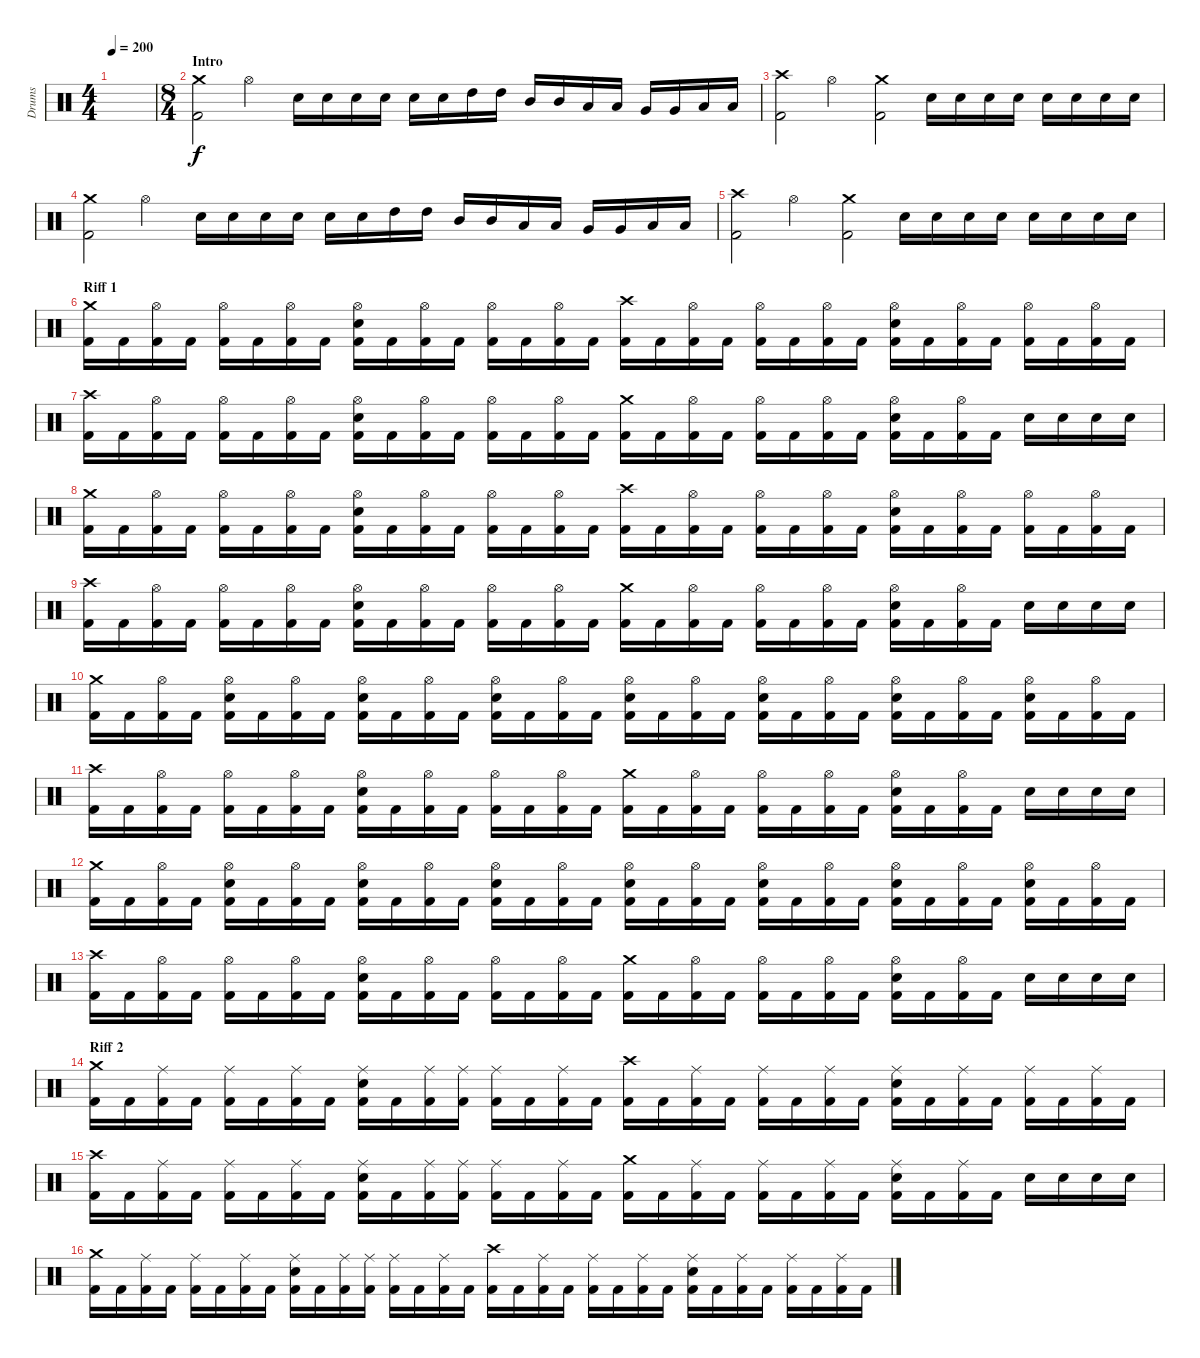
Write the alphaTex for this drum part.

\track ("Drums" "Drums") {instrument percussion}
\staff {score}
\articulation defaults
\ts (4 4)
\tempo 200
\clef neutral
\ks c
|
\ts (8 4)
\section ("" "Intro")
("Crash medium (hit)" "Kick (hit) 2").2 "Hi-Hat (open)".2 "Electric Snare (hit)".16 "Electric Snare (hit)".16 "Electric Snare (hit)".16 "Electric Snare (hit)".16 "Electric Snare (hit)".16 "Electric Snare (hit)".16 "High Tom (hit)".16 "High Tom (hit)".16 "Mid Tom (hit)".16 "Mid Tom (hit)".16 "Low Tom (hit)".16 "Low Tom (hit)".16 "Very Low Tom (hit)".16 "Very Low Tom (hit)".16 "Low Floor Tom (hit)".16 "Low Floor Tom (hit)".16 |
("Crash high (hit)" "Kick (hit) 2").2 "Hi-Hat (open)".2 ("Crash medium (hit)" "Kick (hit) 2").2 "Electric Snare (hit)".16 "Electric Snare (hit)".16 "Electric Snare (hit)".16 "Electric Snare (hit)".16 "Electric Snare (hit)".16 "Electric Snare (hit)".16 "Electric Snare (hit)".16 "Electric Snare (hit)".16 |
("Crash medium (hit)" "Kick (hit) 2").2 "Hi-Hat (open)".2 "Electric Snare (hit)".16 "Electric Snare (hit)".16 "Electric Snare (hit)".16 "Electric Snare (hit)".16 "Electric Snare (hit)".16 "Electric Snare (hit)".16 "High Tom (hit)".16 "High Tom (hit)".16 "Mid Tom (hit)".16 "Mid Tom (hit)".16 "Low Tom (hit)".16 "Low Tom (hit)".16 "Very Low Tom (hit)".16 "Very Low Tom (hit)".16 "Low Floor Tom (hit)".16 "Low Floor Tom (hit)".16 |
("Crash high (hit)" "Kick (hit) 2").2 "Hi-Hat (open)".2 ("Crash medium (hit)" "Kick (hit) 2").2 "Electric Snare (hit)".16 "Electric Snare (hit)".16 "Electric Snare (hit)".16 "Electric Snare (hit)".16 "Electric Snare (hit)".16 "Electric Snare (hit)".16 "Electric Snare (hit)".16 "Electric Snare (hit)".16 |
\section ("" "Riff 1")
("Crash medium (hit)" "Kick (hit) 2").16 "Kick (hit) 2".16 ("Hi-Hat (open)" "Kick (hit) 2").16 "Kick (hit) 2".16 ("Hi-Hat (open)" "Kick (hit) 2").16 "Kick (hit) 2".16 ("Hi-Hat (open)" "Kick (hit) 2").16 "Kick (hit) 2".16 ("Hi-Hat (open)" "Electric Snare (hit)" "Kick (hit) 2").16 "Kick (hit) 2".16 ("Hi-Hat (open)" "Kick (hit) 2").16 "Kick (hit) 2".16 ("Hi-Hat (open)" "Kick (hit) 2").16 "Kick (hit) 2".16 ("Hi-Hat (open)" "Kick (hit) 2").16 "Kick (hit) 2".16 ("Crash high (hit)" "Kick (hit) 2").16 "Kick (hit) 2".16 ("Hi-Hat (open)" "Kick (hit) 2").16 "Kick (hit) 2".16 ("Hi-Hat (open)" "Kick (hit) 2").16 "Kick (hit) 2".16 ("Hi-Hat (open)" "Kick (hit) 2").16 "Kick (hit) 2".16 ("Hi-Hat (open)" "Electric Snare (hit)" "Kick (hit) 2").16 "Kick (hit) 2".16 ("Hi-Hat (open)" "Kick (hit) 2").16 "Kick (hit) 2".16 ("Hi-Hat (open)" "Kick (hit) 2").16 "Kick (hit) 2".16 ("Hi-Hat (open)" "Kick (hit) 2").16 "Kick (hit) 2".16 |
("Crash high (hit)" "Kick (hit) 2").16 "Kick (hit) 2".16 ("Hi-Hat (open)" "Kick (hit) 2").16 "Kick (hit) 2".16 ("Hi-Hat (open)" "Kick (hit) 2").16 "Kick (hit) 2".16 ("Hi-Hat (open)" "Kick (hit) 2").16 "Kick (hit) 2".16 ("Hi-Hat (open)" "Electric Snare (hit)" "Kick (hit) 2").16 "Kick (hit) 2".16 ("Hi-Hat (open)" "Kick (hit) 2").16 "Kick (hit) 2".16 ("Hi-Hat (open)" "Kick (hit) 2").16 "Kick (hit) 2".16 ("Hi-Hat (open)" "Kick (hit) 2").16 "Kick (hit) 2".16 ("Crash medium (hit)" "Kick (hit) 2").16 "Kick (hit) 2".16 ("Hi-Hat (open)" "Kick (hit) 2").16 "Kick (hit) 2".16 ("Hi-Hat (open)" "Kick (hit) 2").16 "Kick (hit) 2".16 ("Hi-Hat (open)" "Kick (hit) 2").16 "Kick (hit) 2".16 ("Hi-Hat (open)" "Electric Snare (hit)" "Kick (hit) 2").16 "Kick (hit) 2".16 ("Hi-Hat (open)" "Kick (hit) 2").16 "Kick (hit) 2".16 "Electric Snare (hit)".16 "Electric Snare (hit)".16 "Electric Snare (hit)".16 "Electric Snare (hit)".16 |
("Crash medium (hit)" "Kick (hit) 2").16 "Kick (hit) 2".16 ("Hi-Hat (open)" "Kick (hit) 2").16 "Kick (hit) 2".16 ("Hi-Hat (open)" "Kick (hit) 2").16 "Kick (hit) 2".16 ("Hi-Hat (open)" "Kick (hit) 2").16 "Kick (hit) 2".16 ("Hi-Hat (open)" "Electric Snare (hit)" "Kick (hit) 2").16 "Kick (hit) 2".16 ("Hi-Hat (open)" "Kick (hit) 2").16 "Kick (hit) 2".16 ("Hi-Hat (open)" "Kick (hit) 2").16 "Kick (hit) 2".16 ("Hi-Hat (open)" "Kick (hit) 2").16 "Kick (hit) 2".16 ("Crash high (hit)" "Kick (hit) 2").16 "Kick (hit) 2".16 ("Hi-Hat (open)" "Kick (hit) 2").16 "Kick (hit) 2".16 ("Hi-Hat (open)" "Kick (hit) 2").16 "Kick (hit) 2".16 ("Hi-Hat (open)" "Kick (hit) 2").16 "Kick (hit) 2".16 ("Hi-Hat (open)" "Electric Snare (hit)" "Kick (hit) 2").16 "Kick (hit) 2".16 ("Hi-Hat (open)" "Kick (hit) 2").16 "Kick (hit) 2".16 ("Hi-Hat (open)" "Kick (hit) 2").16 "Kick (hit) 2".16 ("Hi-Hat (open)" "Kick (hit) 2").16 "Kick (hit) 2".16 |
("Crash high (hit)" "Kick (hit) 2").16 "Kick (hit) 2".16 ("Hi-Hat (open)" "Kick (hit) 2").16 "Kick (hit) 2".16 ("Hi-Hat (open)" "Kick (hit) 2").16 "Kick (hit) 2".16 ("Hi-Hat (open)" "Kick (hit) 2").16 "Kick (hit) 2".16 ("Hi-Hat (open)" "Electric Snare (hit)" "Kick (hit) 2").16 "Kick (hit) 2".16 ("Hi-Hat (open)" "Kick (hit) 2").16 "Kick (hit) 2".16 ("Hi-Hat (open)" "Kick (hit) 2").16 "Kick (hit) 2".16 ("Hi-Hat (open)" "Kick (hit) 2").16 "Kick (hit) 2".16 ("Crash medium (hit)" "Kick (hit) 2").16 "Kick (hit) 2".16 ("Hi-Hat (open)" "Kick (hit) 2").16 "Kick (hit) 2".16 ("Hi-Hat (open)" "Kick (hit) 2").16 "Kick (hit) 2".16 ("Hi-Hat (open)" "Kick (hit) 2").16 "Kick (hit) 2".16 ("Hi-Hat (open)" "Electric Snare (hit)" "Kick (hit) 2").16 "Kick (hit) 2".16 ("Hi-Hat (open)" "Kick (hit) 2").16 "Kick (hit) 2".16 "Electric Snare (hit)".16 "Electric Snare (hit)".16 "Electric Snare (hit)".16 "Electric Snare (hit)".16 |
("Crash medium (hit)" "Kick (hit) 2").16 "Kick (hit) 2".16 ("Hi-Hat (open)" "Kick (hit) 2").16 "Kick (hit) 2".16 ("Hi-Hat (open)" "Electric Snare (hit)" "Kick (hit) 2").16 "Kick (hit) 2".16 ("Hi-Hat (open)" "Kick (hit) 2").16 "Kick (hit) 2".16 ("Hi-Hat (open)" "Electric Snare (hit)" "Kick (hit) 2").16 "Kick (hit) 2".16 ("Hi-Hat (open)" "Kick (hit) 2").16 "Kick (hit) 2".16 ("Hi-Hat (open)" "Electric Snare (hit)" "Kick (hit) 2").16 "Kick (hit) 2".16 ("Hi-Hat (open)" "Kick (hit) 2").16 "Kick (hit) 2".16 ("Hi-Hat (open)" "Electric Snare (hit)" "Kick (hit) 2").16 "Kick (hit) 2".16 ("Hi-Hat (open)" "Kick (hit) 2").16 "Kick (hit) 2".16 ("Hi-Hat (open)" "Electric Snare (hit)" "Kick (hit) 2").16 "Kick (hit) 2".16 ("Hi-Hat (open)" "Kick (hit) 2").16 "Kick (hit) 2".16 ("Hi-Hat (open)" "Electric Snare (hit)" "Kick (hit) 2").16 "Kick (hit) 2".16 ("Hi-Hat (open)" "Kick (hit) 2").16 "Kick (hit) 2".16 ("Hi-Hat (open)" "Electric Snare (hit)" "Kick (hit) 2").16 "Kick (hit) 2".16 ("Hi-Hat (open)" "Kick (hit) 2").16 "Kick (hit) 2".16 |
("Crash high (hit)" "Kick (hit) 2").16 "Kick (hit) 2".16 ("Hi-Hat (open)" "Kick (hit) 2").16 "Kick (hit) 2".16 ("Hi-Hat (open)" "Kick (hit) 2").16 "Kick (hit) 2".16 ("Hi-Hat (open)" "Kick (hit) 2").16 "Kick (hit) 2".16 ("Hi-Hat (open)" "Electric Snare (hit)" "Kick (hit) 2").16 "Kick (hit) 2".16 ("Hi-Hat (open)" "Kick (hit) 2").16 "Kick (hit) 2".16 ("Hi-Hat (open)" "Kick (hit) 2").16 "Kick (hit) 2".16 ("Hi-Hat (open)" "Kick (hit) 2").16 "Kick (hit) 2".16 ("Crash medium (hit)" "Kick (hit) 2").16 "Kick (hit) 2".16 ("Hi-Hat (open)" "Kick (hit) 2").16 "Kick (hit) 2".16 ("Hi-Hat (open)" "Kick (hit) 2").16 "Kick (hit) 2".16 ("Hi-Hat (open)" "Kick (hit) 2").16 "Kick (hit) 2".16 ("Hi-Hat (open)" "Electric Snare (hit)" "Kick (hit) 2").16 "Kick (hit) 2".16 ("Hi-Hat (open)" "Kick (hit) 2").16 "Kick (hit) 2".16 "Electric Snare (hit)".16 "Electric Snare (hit)".16 "Electric Snare (hit)".16 "Electric Snare (hit)".16 |
("Crash medium (hit)" "Kick (hit) 2").16 "Kick (hit) 2".16 ("Hi-Hat (open)" "Kick (hit) 2").16 "Kick (hit) 2".16 ("Hi-Hat (open)" "Electric Snare (hit)" "Kick (hit) 2").16 "Kick (hit) 2".16 ("Hi-Hat (open)" "Kick (hit) 2").16 "Kick (hit) 2".16 ("Hi-Hat (open)" "Electric Snare (hit)" "Kick (hit) 2").16 "Kick (hit) 2".16 ("Hi-Hat (open)" "Kick (hit) 2").16 "Kick (hit) 2".16 ("Hi-Hat (open)" "Electric Snare (hit)" "Kick (hit) 2").16 "Kick (hit) 2".16 ("Hi-Hat (open)" "Kick (hit) 2").16 "Kick (hit) 2".16 ("Hi-Hat (open)" "Electric Snare (hit)" "Kick (hit) 2").16 "Kick (hit) 2".16 ("Hi-Hat (open)" "Kick (hit) 2").16 "Kick (hit) 2".16 ("Hi-Hat (open)" "Electric Snare (hit)" "Kick (hit) 2").16 "Kick (hit) 2".16 ("Hi-Hat (open)" "Kick (hit) 2").16 "Kick (hit) 2".16 ("Hi-Hat (open)" "Electric Snare (hit)" "Kick (hit) 2").16 "Kick (hit) 2".16 ("Hi-Hat (open)" "Kick (hit) 2").16 "Kick (hit) 2".16 ("Hi-Hat (open)" "Electric Snare (hit)" "Kick (hit) 2").16 "Kick (hit) 2".16 ("Hi-Hat (open)" "Kick (hit) 2").16 "Kick (hit) 2".16 |
("Crash high (hit)" "Kick (hit) 2").16 "Kick (hit) 2".16 ("Hi-Hat (open)" "Kick (hit) 2").16 "Kick (hit) 2".16 ("Hi-Hat (open)" "Kick (hit) 2").16 "Kick (hit) 2".16 ("Hi-Hat (open)" "Kick (hit) 2").16 "Kick (hit) 2".16 ("Hi-Hat (open)" "Electric Snare (hit)" "Kick (hit) 2").16 "Kick (hit) 2".16 ("Hi-Hat (open)" "Kick (hit) 2").16 "Kick (hit) 2".16 ("Hi-Hat (open)" "Kick (hit) 2").16 "Kick (hit) 2".16 ("Hi-Hat (open)" "Kick (hit) 2").16 "Kick (hit) 2".16 ("Crash medium (hit)" "Kick (hit) 2").16 "Kick (hit) 2".16 ("Hi-Hat (open)" "Kick (hit) 2").16 "Kick (hit) 2".16 ("Hi-Hat (open)" "Kick (hit) 2").16 "Kick (hit) 2".16 ("Hi-Hat (open)" "Kick (hit) 2").16 "Kick (hit) 2".16 ("Hi-Hat (open)" "Electric Snare (hit)" "Kick (hit) 2").16 "Kick (hit) 2".16 ("Hi-Hat (open)" "Kick (hit) 2").16 "Kick (hit) 2".16 "Electric Snare (hit)".16 "Electric Snare (hit)".16 "Electric Snare (hit)".16 "Electric Snare (hit)".16 |
\section ("" "Riff 2")
("Crash medium (hit)" "Kick (hit) 2").16 "Kick (hit) 2".16 ("Ride (middle)" "Kick (hit) 2").16 "Kick (hit) 2".16 ("Ride (middle)" "Kick (hit) 2").16 "Kick (hit) 2".16 ("Ride (middle)" "Kick (hit) 2").16 "Kick (hit) 2".16 ("Ride (middle)" "Electric Snare (hit)" "Kick (hit) 2").16 "Kick (hit) 2".16 ("Ride (middle)" "Kick (hit) 2").16 ("Ride (middle)" "Kick (hit) 2").16 ("Ride (middle)" "Kick (hit) 2").16 "Kick (hit) 2".16 ("Ride (middle)" "Kick (hit) 2").16 "Kick (hit) 2".16 ("Crash high (hit)" "Kick (hit) 2").16 "Kick (hit) 2".16 ("Ride (middle)" "Kick (hit) 2").16 "Kick (hit) 2".16 ("Ride (middle)" "Kick (hit) 2").16 "Kick (hit) 2".16 ("Ride (middle)" "Kick (hit) 2").16 "Kick (hit) 2".16 ("Ride (middle)" "Electric Snare (hit)" "Kick (hit) 2").16 "Kick (hit) 2".16 ("Ride (middle)" "Kick (hit) 2").16 "Kick (hit) 2".16 ("Ride (middle)" "Kick (hit) 2").16 "Kick (hit) 2".16 ("Ride (middle)" "Kick (hit) 2").16 "Kick (hit) 2".16 |
("Crash high (hit)" "Kick (hit) 2").16 "Kick (hit) 2".16 ("Ride (middle)" "Kick (hit) 2").16 "Kick (hit) 2".16 ("Ride (middle)" "Kick (hit) 2").16 "Kick (hit) 2".16 ("Ride (middle)" "Kick (hit) 2").16 "Kick (hit) 2".16 ("Ride (middle)" "Electric Snare (hit)" "Kick (hit) 2").16 "Kick (hit) 2".16 ("Ride (middle)" "Kick (hit) 2").16 ("Ride (middle)" "Kick (hit) 2").16 ("Ride (middle)" "Kick (hit) 2").16 "Kick (hit) 2".16 ("Ride (middle)" "Kick (hit) 2").16 "Kick (hit) 2".16 ("Crash medium (hit)" "Kick (hit) 2").16 "Kick (hit) 2".16 ("Ride (middle)" "Kick (hit) 2").16 "Kick (hit) 2".16 ("Ride (middle)" "Kick (hit) 2").16 "Kick (hit) 2".16 ("Ride (middle)" "Kick (hit) 2").16 "Kick (hit) 2".16 ("Ride (middle)" "Electric Snare (hit)" "Kick (hit) 2").16 "Kick (hit) 2".16 ("Ride (middle)" "Kick (hit) 2").16 "Kick (hit) 2".16 "Electric Snare (hit)".16 "Electric Snare (hit)".16 "Electric Snare (hit)".16 "Electric Snare (hit)".16 |
("Crash medium (hit)" "Kick (hit) 2").16 "Kick (hit) 2".16 ("Ride (middle)" "Kick (hit) 2").16 "Kick (hit) 2".16 ("Ride (middle)" "Kick (hit) 2").16 "Kick (hit) 2".16 ("Ride (middle)" "Kick (hit) 2").16 "Kick (hit) 2".16 ("Ride (middle)" "Electric Snare (hit)" "Kick (hit) 2").16 "Kick (hit) 2".16 ("Ride (middle)" "Kick (hit) 2").16 ("Ride (middle)" "Kick (hit) 2").16 ("Ride (middle)" "Kick (hit) 2").16 "Kick (hit) 2".16 ("Ride (middle)" "Kick (hit) 2").16 "Kick (hit) 2".16 ("Crash high (hit)" "Kick (hit) 2").16 "Kick (hit) 2".16 ("Ride (middle)" "Kick (hit) 2").16 "Kick (hit) 2".16 ("Ride (middle)" "Kick (hit) 2").16 "Kick (hit) 2".16 ("Ride (middle)" "Kick (hit) 2").16 "Kick (hit) 2".16 ("Ride (middle)" "Electric Snare (hit)" "Kick (hit) 2").16 "Kick (hit) 2".16 ("Ride (middle)" "Kick (hit) 2").16 "Kick (hit) 2".16 ("Ride (middle)" "Kick (hit) 2").16 "Kick (hit) 2".16 ("Ride (middle)" "Kick (hit) 2").16 "Kick (hit) 2".16
